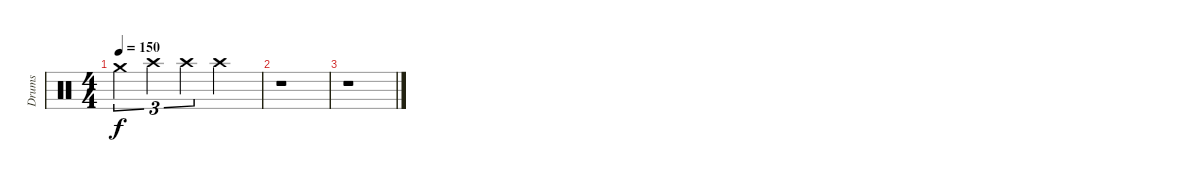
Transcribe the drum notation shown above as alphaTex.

\track ("Drums" "Drums") {instrument percussion}
\staff {score}
\articulation defaults
\ts (4 4)
\tempo 150
\clef neutral
\ks c "Crash medium (hit)".4{tu (3 2) dy f} "Crash high (hit)".4{tu (3 2)} "Crash high (hit)".4{tu (3 2)} "Crash high (hit)".2
|
r.1 |
r.1
